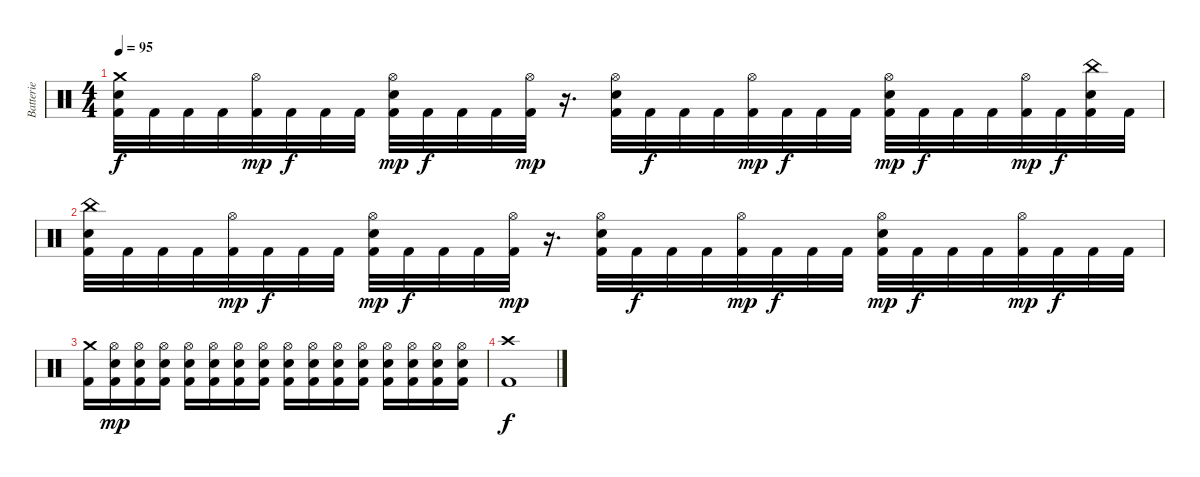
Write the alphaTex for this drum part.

\track ("Batterie" "Batterie") {instrument percussion}
\staff {score}
\articulation defaults
\ts (4 4)
\tempo 95
\clef neutral
\ks c
("Crash medium (hit)" "Electric Snare (hit)" "Kick (hit) 2").32{dy f} "Kick (hit) 2".32 "Kick (hit) 2".32 "Kick (hit) 2".32 ("Hi-Hat (open)" "Kick (hit) 2").32{dy mp} "Kick (hit) 2".32{dy f} "Kick (hit) 2".32 "Kick (hit) 2".32 ("Hi-Hat (open)" "Electric Snare (hit)" "Kick (hit) 2").32{dy mp} "Kick (hit) 2".32{dy f} "Kick (hit) 2".32 "Kick (hit) 2".32 ("Hi-Hat (open)" "Kick (hit) 2").32{dy mp} r.16{d} ("Hi-Hat (open)" "Electric Snare (hit)" "Kick (hit) 2").32 "Kick (hit) 2".32{dy f} "Kick (hit) 2".32 "Kick (hit) 2".32 ("Hi-Hat (open)" "Kick (hit) 2").32{dy mp} "Kick (hit) 2".32{dy f} "Kick (hit) 2".32 "Kick (hit) 2".32 ("Hi-Hat (open)" "Electric Snare (hit)" "Kick (hit) 2").32{dy mp} "Kick (hit) 2".32{dy f} "Kick (hit) 2".32 "Kick (hit) 2".32 ("Hi-Hat (open)" "Kick (hit) 2").32{dy mp} "Kick (hit) 2".32{dy f} ("China (hit)" "Electric Snare (hit)" "Kick (hit) 2").32 "Kick (hit) 2".32 |
("China (hit)" "Electric Snare (hit)" "Kick (hit) 2").32 "Kick (hit) 2".32 "Kick (hit) 2".32 "Kick (hit) 2".32 ("Hi-Hat (open)" "Kick (hit) 2").32{dy mp} "Kick (hit) 2".32{dy f} "Kick (hit) 2".32 "Kick (hit) 2".32 ("Hi-Hat (open)" "Electric Snare (hit)" "Kick (hit) 2").32{dy mp} "Kick (hit) 2".32{dy f} "Kick (hit) 2".32 "Kick (hit) 2".32 ("Hi-Hat (open)" "Kick (hit) 2").32{dy mp} r.16{d} ("Hi-Hat (open)" "Electric Snare (hit)" "Kick (hit) 2").32 "Kick (hit) 2".32{dy f} "Kick (hit) 2".32 "Kick (hit) 2".32 ("Hi-Hat (open)" "Kick (hit) 2").32{dy mp} "Kick (hit) 2".32{dy f} "Kick (hit) 2".32 "Kick (hit) 2".32 ("Hi-Hat (open)" "Electric Snare (hit)" "Kick (hit) 2").32{dy mp} "Kick (hit) 2".32{dy f} "Kick (hit) 2".32 "Kick (hit) 2".32 ("Hi-Hat (open)" "Kick (hit) 2").32{dy mp} "Kick (hit) 2".32{dy f} "Kick (hit) 2".32 "Kick (hit) 2".32 |
("Crash medium (hit)" "Kick (hit) 2").16 ("Hi-Hat (open)" "Electric Snare (hit)" "Kick (hit) 2").16{dy mp} ("Hi-Hat (open)" "Electric Snare (hit)" "Kick (hit) 2").16 ("Hi-Hat (open)" "Electric Snare (hit)" "Kick (hit) 2").16 ("Hi-Hat (open)" "Electric Snare (hit)" "Kick (hit) 2").16 ("Hi-Hat (open)" "Electric Snare (hit)" "Kick (hit) 2").16 ("Hi-Hat (open)" "Electric Snare (hit)" "Kick (hit) 2").16 ("Hi-Hat (open)" "Electric Snare (hit)" "Kick (hit) 2").16 ("Hi-Hat (open)" "Electric Snare (hit)" "Kick (hit) 2").16 ("Hi-Hat (open)" "Electric Snare (hit)" "Kick (hit) 2").16 ("Hi-Hat (open)" "Electric Snare (hit)" "Kick (hit) 2").16 ("Hi-Hat (open)" "Electric Snare (hit)" "Kick (hit) 2").16 ("Hi-Hat (open)" "Electric Snare (hit)" "Kick (hit) 2").16 ("Hi-Hat (open)" "Electric Snare (hit)" "Kick (hit) 2").16 ("Hi-Hat (open)" "Electric Snare (hit)" "Kick (hit) 2").16 ("Hi-Hat (open)" "Electric Snare (hit)" "Kick (hit) 2").16 |
("Crash high (hit)" "Kick (hit) 2").1{dy f}
